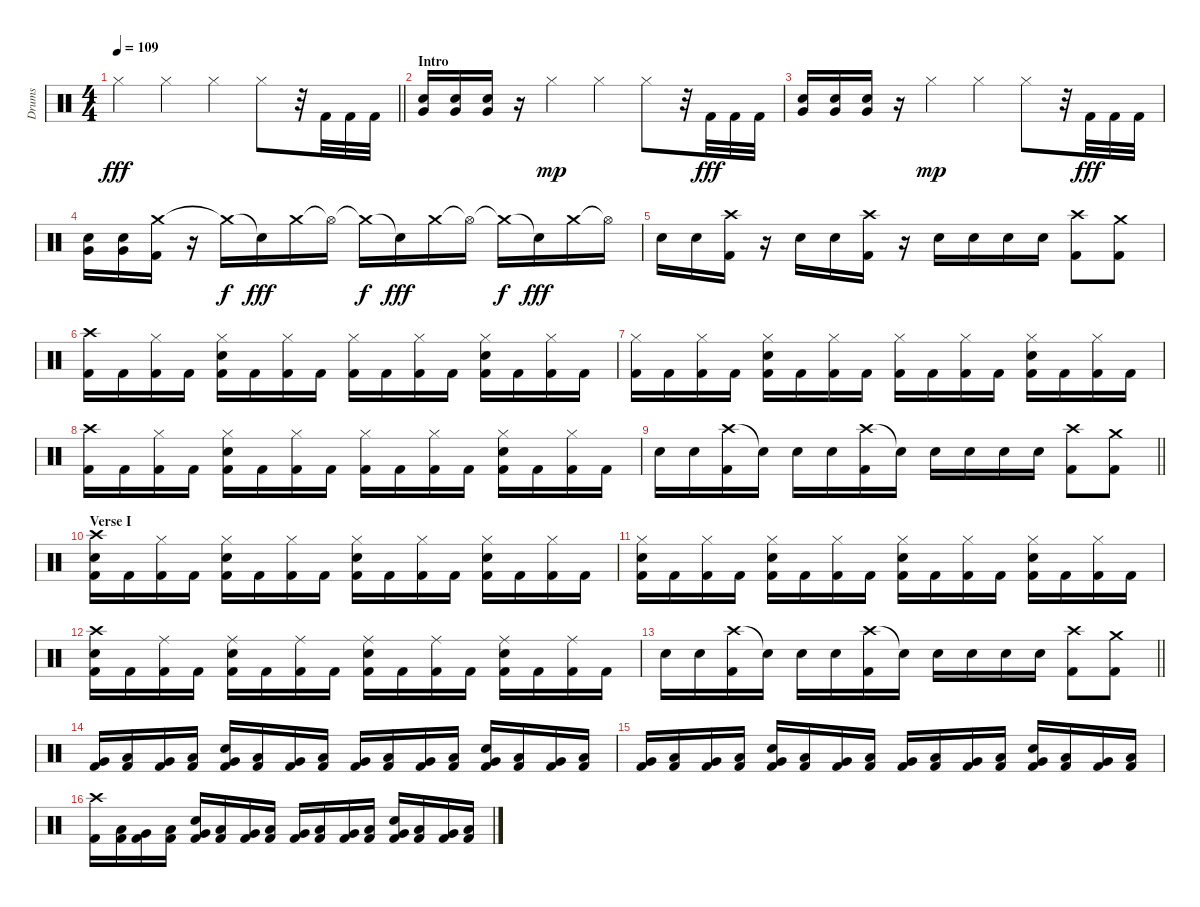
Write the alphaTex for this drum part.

\track ("Drums" "Drums") {instrument percussion}
\staff {score}
\articulation defaults
\ts (4 4)
\tempo 109
\clef neutral
\barLineRight lightlight
\ks c "Hi-Hat (closed)".4{dy fff} "Hi-Hat (closed)".4 "Hi-Hat (closed)".4 "Hi-Hat (closed)".8
r.32 "Kick (hit) 2".32 "Kick (hit) 2".32 "Kick (hit) 2".32 |
\section ("" "Intro")
("Electric Snare (hit)" "Very Low Tom (hit)").16 ("Electric Snare (hit)" "Very Low Tom (hit)").16 ("Electric Snare (hit)" "Very Low Tom (hit)").16 r.16 "Hi-Hat (closed)".4{dy mp} "Hi-Hat (closed)".4 "Hi-Hat (closed)".8 r.32 "Kick (hit) 2".32{dy fff} "Kick (hit) 2".32 "Kick (hit) 2".32 |
("Electric Snare (hit)" "Very Low Tom (hit)").16 ("Electric Snare (hit)" "Very Low Tom (hit)").16 ("Electric Snare (hit)" "Very Low Tom (hit)").16 r.16 "Hi-Hat (closed)".4{dy mp} "Hi-Hat (closed)".4 "Hi-Hat (closed)".8 r.32 "Kick (hit) 2".32{dy fff} "Kick (hit) 2".32 "Kick (hit) 2".32 |
("Electric Snare (hit)" "Very Low Tom (hit)").16 ("Electric Snare (hit)" "Very Low Tom (hit)").16 ("Crash medium (hit)" "Kick (hit) 2").16 r.16 "Crash medium (hit)"{t}.16{dy f} "Snare (hit)"{t}.16{dy fff} "Crash medium (hit)".16 "Hi-Hat (open)"{t}.16 "Crash medium (hit)"{t}.16{dy f} "Snare (hit)"{t}.16{dy fff} "Crash medium (hit)".16 "Hi-Hat (open)"{t}.16 "Crash medium (hit)"{t}.16{dy f} "Snare (hit)"{t}.16{dy fff} "Crash medium (hit)".16 "Hi-Hat (open)"{t}.16 |
"Electric Snare (hit)".16 "Electric Snare (hit)".16 ("Crash high (hit)" "Kick (hit) 2").16 r.16 "Electric Snare (hit)".16 "Electric Snare (hit)".16 ("Crash high (hit)" "Kick (hit) 2").16 r.16 "Electric Snare (hit)".16 "Electric Snare (hit)".16 "Electric Snare (hit)".16 "Electric Snare (hit)".16 ("Crash high (hit)" "Kick (hit) 2").8 ("Crash medium (hit)" "Kick (hit) 2").8 |
("Crash high (hit)" "Kick (hit) 2").16 "Kick (hit) 2".16 ("Hi-Hat (closed)" "Kick (hit) 2").16 "Kick (hit) 2".16 ("Hi-Hat (closed)" "Electric Snare (hit)" "Kick (hit) 2").16 "Kick (hit) 2".16 ("Hi-Hat (closed)" "Kick (hit) 2").16 "Kick (hit) 2".16 ("Hi-Hat (closed)" "Kick (hit) 2").16 "Kick (hit) 2".16 ("Hi-Hat (closed)" "Kick (hit) 2").16 "Kick (hit) 2".16 ("Hi-Hat (closed)" "Electric Snare (hit)" "Kick (hit) 2").16 "Kick (hit) 2".16 ("Hi-Hat (closed)" "Kick (hit) 2").16 "Kick (hit) 2".16 |
("Hi-Hat (closed)" "Kick (hit) 2").16 "Kick (hit) 2".16 ("Hi-Hat (closed)" "Kick (hit) 2").16 "Kick (hit) 2".16 ("Hi-Hat (closed)" "Electric Snare (hit)" "Kick (hit) 2").16 "Kick (hit) 2".16 ("Hi-Hat (closed)" "Kick (hit) 2").16 "Kick (hit) 2".16 ("Hi-Hat (closed)" "Kick (hit) 2").16 "Kick (hit) 2".16 ("Hi-Hat (closed)" "Kick (hit) 2").16 "Kick (hit) 2".16 ("Hi-Hat (closed)" "Electric Snare (hit)" "Kick (hit) 2").16 "Kick (hit) 2".16 ("Hi-Hat (closed)" "Kick (hit) 2").16 "Kick (hit) 2".16 |
("Crash high (hit)" "Kick (hit) 2").16 "Kick (hit) 2".16 ("Hi-Hat (closed)" "Kick (hit) 2").16 "Kick (hit) 2".16 ("Hi-Hat (closed)" "Electric Snare (hit)" "Kick (hit) 2").16 "Kick (hit) 2".16 ("Hi-Hat (closed)" "Kick (hit) 2").16 "Kick (hit) 2".16 ("Hi-Hat (closed)" "Kick (hit) 2").16 "Kick (hit) 2".16 ("Hi-Hat (closed)" "Kick (hit) 2").16 "Kick (hit) 2".16 ("Hi-Hat (closed)" "Electric Snare (hit)" "Kick (hit) 2").16 "Kick (hit) 2".16 ("Hi-Hat (closed)" "Kick (hit) 2").16 "Kick (hit) 2".16 |
\barLineRight lightlight "Electric Snare (hit)".16 "Electric Snare (hit)".16
("Crash high (hit)" "Kick (hit) 2").16 "Electric Snare (hit)"{t}.16 "Electric Snare (hit)".16 "Electric Snare (hit)".16 ("Crash high (hit)" "Kick (hit) 2").16 "Electric Snare (hit)"{t}.16 "Electric Snare (hit)".16 "Electric Snare (hit)".16 "Electric Snare (hit)".16 "Electric Snare (hit)".16 ("Crash high (hit)" "Kick (hit) 2").8 ("Crash medium (hit)" "Kick (hit) 2").8 |
\section ("" "Verse I")
("Crash high (hit)" "Electric Snare (hit)" "Kick (hit) 2").16 "Kick (hit) 2".16 ("Hi-Hat (closed)" "Kick (hit) 2").16 "Kick (hit) 2".16 ("Hi-Hat (closed)" "Electric Snare (hit)" "Kick (hit) 2").16 "Kick (hit) 2".16 ("Hi-Hat (closed)" "Kick (hit) 2").16 "Kick (hit) 2".16 ("Hi-Hat (closed)" "Electric Snare (hit)" "Kick (hit) 2").16 "Kick (hit) 2".16 ("Hi-Hat (closed)" "Kick (hit) 2").16 "Kick (hit) 2".16 ("Hi-Hat (closed)" "Electric Snare (hit)" "Kick (hit) 2").16 "Kick (hit) 2".16 ("Hi-Hat (closed)" "Kick (hit) 2").16 "Kick (hit) 2".16 |
("Hi-Hat (closed)" "Electric Snare (hit)" "Kick (hit) 2").16 "Kick (hit) 2".16 ("Hi-Hat (closed)" "Kick (hit) 2").16 "Kick (hit) 2".16 ("Hi-Hat (closed)" "Electric Snare (hit)" "Kick (hit) 2").16 "Kick (hit) 2".16 ("Hi-Hat (closed)" "Kick (hit) 2").16 "Kick (hit) 2".16 ("Hi-Hat (closed)" "Electric Snare (hit)" "Kick (hit) 2").16 "Kick (hit) 2".16 ("Hi-Hat (closed)" "Kick (hit) 2").16 "Kick (hit) 2".16 ("Hi-Hat (closed)" "Electric Snare (hit)" "Kick (hit) 2").16 "Kick (hit) 2".16 ("Hi-Hat (closed)" "Kick (hit) 2").16 "Kick (hit) 2".16 |
("Crash high (hit)" "Electric Snare (hit)" "Kick (hit) 2").16 "Kick (hit) 2".16 ("Ride (middle)" "Kick (hit) 2").16 "Kick (hit) 2".16 ("Ride (middle)" "Electric Snare (hit)" "Kick (hit) 2").16 "Kick (hit) 2".16 ("Ride (middle)" "Kick (hit) 2").16 "Kick (hit) 2".16 ("Ride (middle)" "Electric Snare (hit)" "Kick (hit) 2").16 "Kick (hit) 2".16 ("Ride (middle)" "Kick (hit) 2").16 "Kick (hit) 2".16 ("Ride (middle)" "Electric Snare (hit)" "Kick (hit) 2").16 "Kick (hit) 2".16 ("Ride (middle)" "Kick (hit) 2").16 "Kick (hit) 2".16 |
\barLineRight lightlight "Electric Snare (hit)".16 "Electric Snare (hit)".16
("Crash high (hit)" "Kick (hit) 2").16 "Electric Snare (hit)"{t}.16 "Electric Snare (hit)".16 "Electric Snare (hit)".16 ("Crash high (hit)" "Kick (hit) 2").16 "Electric Snare (hit)"{t}.16 "Electric Snare (hit)".16 "Electric Snare (hit)".16 "Electric Snare (hit)".16 "Electric Snare (hit)".16 ("Crash high (hit)" "Kick (hit) 2").8 ("Crash medium (hit)" "Kick (hit) 2").8 |
("Very Low Tom (hit)" "Kick (hit) 2").16 ("Low Tom (hit)" "Kick (hit) 2").16 ("Very Low Tom (hit)" "Kick (hit) 2").16 ("Low Tom (hit)" "Kick (hit) 2").16 ("Electric Snare (hit)" "Very Low Tom (hit)" "Kick (hit) 2").16 ("Low Tom (hit)" "Kick (hit) 2").16 ("Very Low Tom (hit)" "Kick (hit) 2").16 ("Low Tom (hit)" "Kick (hit) 2").16 ("Very Low Tom (hit)" "Kick (hit) 2").16 ("Low Tom (hit)" "Kick (hit) 2").16 ("Very Low Tom (hit)" "Kick (hit) 2").16 ("Low Tom (hit)" "Kick (hit) 2").16 ("Electric Snare (hit)" "Very Low Tom (hit)" "Kick (hit) 2").16 ("Low Tom (hit)" "Kick (hit) 2").16 ("Very Low Tom (hit)" "Kick (hit) 2").16 ("Low Tom (hit)" "Kick (hit) 2").16 |
("Very Low Tom (hit)" "Kick (hit) 2").16 ("Low Tom (hit)" "Kick (hit) 2").16 ("Very Low Tom (hit)" "Kick (hit) 2").16 ("Low Tom (hit)" "Kick (hit) 2").16 ("Electric Snare (hit)" "Very Low Tom (hit)" "Kick (hit) 2").16 ("Low Tom (hit)" "Kick (hit) 2").16 ("Very Low Tom (hit)" "Kick (hit) 2").16 ("Low Tom (hit)" "Kick (hit) 2").16 ("Very Low Tom (hit)" "Kick (hit) 2").16 ("Low Tom (hit)" "Kick (hit) 2").16 ("Very Low Tom (hit)" "Kick (hit) 2").16 ("Low Tom (hit)" "Kick (hit) 2").16 ("Electric Snare (hit)" "Very Low Tom (hit)" "Kick (hit) 2").16 ("Low Tom (hit)" "Kick (hit) 2").16 ("Very Low Tom (hit)" "Kick (hit) 2").16 ("Low Tom (hit)" "Kick (hit) 2").16 |
("Crash high (hit)" "Kick (hit) 2").16 ("Low Tom (hit)" "Kick (hit) 2").16 ("Very Low Tom (hit)" "Kick (hit) 2").16 ("Low Tom (hit)" "Kick (hit) 2").16 ("Electric Snare (hit)" "Very Low Tom (hit)" "Kick (hit) 2").16 ("Low Tom (hit)" "Kick (hit) 2").16 ("Very Low Tom (hit)" "Kick (hit) 2").16 ("Low Tom (hit)" "Kick (hit) 2").16 ("Very Low Tom (hit)" "Kick (hit) 2").16 ("Low Tom (hit)" "Kick (hit) 2").16 ("Very Low Tom (hit)" "Kick (hit) 2").16 ("Low Tom (hit)" "Kick (hit) 2").16 ("Electric Snare (hit)" "Very Low Tom (hit)" "Kick (hit) 2").16 ("Low Tom (hit)" "Kick (hit) 2").16 ("Very Low Tom (hit)" "Kick (hit) 2").16 ("Low Tom (hit)" "Kick (hit) 2").16
